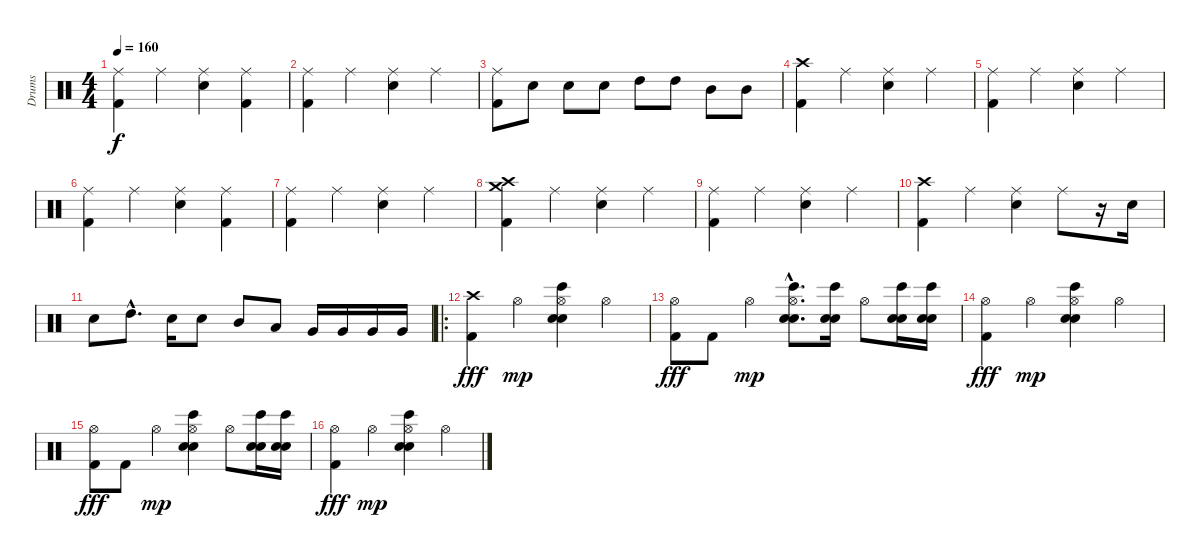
\track ("Drums" "Drums") {instrument percussion}
\staff {score}
\articulation defaults
\ts (4 4)
\tempo 160
\clef neutral
\ks c
("Ride (middle)" "Kick (hit) 2").4{dy f} "Ride (middle)".4 ("Ride (middle)" "Snare (hit) 2").4 ("Ride (middle)" "Kick (hit) 2").4 |
("Ride (middle)" "Kick (hit) 2").4 "Ride (middle)".4 ("Ride (middle)" "Snare (hit) 2").4 "Ride (middle)".4 |
("Ride (middle)" "Kick (hit) 2").8 "Snare (hit) 2".8 "Snare (hit) 2".8 "Snare (hit) 2".8 "High Tom (hit)".8 "High Tom (hit)".8 "Mid Tom (hit)".8 "Mid Tom (hit)".8 |
("Crash high (hit)" "Kick (hit) 2").4 "Ride (middle)".4 ("Ride (middle)" "Snare (hit) 2").4 "Ride (middle)".4 |
("Ride (middle)" "Kick (hit) 2").4 "Ride (middle)".4 ("Ride (middle)" "Snare (hit) 2").4 "Ride (middle)".4 |
("Ride (middle)" "Kick (hit) 2").4 "Ride (middle)".4 ("Ride (middle)" "Snare (hit) 2").4 ("Ride (middle)" "Kick (hit) 2").4 |
("Ride (middle)" "Kick (hit) 2").4 "Ride (middle)".4 ("Ride (middle)" "Snare (hit) 2").4 "Ride (middle)".4 |
("Crash high (hit)" "Crash medium (hit)" "Kick (hit) 2").4 "Ride (middle)".4 ("Ride (middle)" "Snare (hit) 2").4 "Ride (middle)".4 |
("Ride (middle)" "Kick (hit) 2").4 "Ride (middle)".4 ("Ride (middle)" "Snare (hit) 2").4 "Ride (middle)".4 |
("Crash high (hit)" "Kick (hit) 2").4 "Ride (middle)".4 ("Ride (middle)" "Snare (hit) 2").4 "Ride (middle)".8 r.16 "Snare (hit) 2".16 |
"Snare (hit) 2".8 "High Tom (hit)"{hac}.8{d} "Snare (hit) 2".16 "Snare (hit) 2".8 "Mid Tom (hit)".8 "Low Tom (hit)".8 "Very Low Tom (hit)".16 "Very Low Tom (hit)".16 "Very Low Tom (hit)".16 "Very Low Tom (hit)".16 |
\ro
("Crash high (hit)" "Kick (hit) 2").4{dy fff} "Hi-Hat (open)".4{dy mp} ("Hi-Hat (open)" "Bongo High (hit)" "Snare (hit) 2" "Electric Snare (hit)").4 "Hi-Hat (open)".4 |
("Hi-Hat (open)" "Kick (hit) 2").8{dy fff} "Kick (hit) 2".8 "Hi-Hat (open)".4{dy mp} ("Hi-Hat (open)"{hac} "Bongo High (hit)"{hac} "Snare (hit) 2"{hac} "Electric Snare (hit)"{hac}).8{d} ("Bongo High (hit)" "Snare (hit) 2" "Electric Snare (hit)").16 "Hi-Hat (open)".8 ("Bongo High (hit)" "Snare (hit) 2" "Electric Snare (hit)").16 ("Bongo High (hit)" "Snare (hit) 2" "Electric Snare (hit)").16 |
("Hi-Hat (open)" "Kick (hit) 2").4{dy fff} "Hi-Hat (open)".4{dy mp} ("Hi-Hat (open)" "Bongo High (hit)" "Snare (hit) 2" "Electric Snare (hit)").4 "Hi-Hat (open)".4 |
("Hi-Hat (open)" "Kick (hit) 2").8{dy fff} "Kick (hit) 2".8 "Hi-Hat (open)".4{dy mp} ("Hi-Hat (open)" "Bongo High (hit)" "Snare (hit) 2" "Electric Snare (hit)").4 "Hi-Hat (open)".8 ("Bongo High (hit)" "Snare (hit) 2" "Electric Snare (hit)").16 ("Bongo High (hit)" "Snare (hit) 2" "Electric Snare (hit)").16 |
("Hi-Hat (open)" "Kick (hit) 2").4{dy fff} "Hi-Hat (open)".4{dy mp} ("Hi-Hat (open)" "Bongo High (hit)" "Snare (hit) 2" "Electric Snare (hit)").4 "Hi-Hat (open)".4
